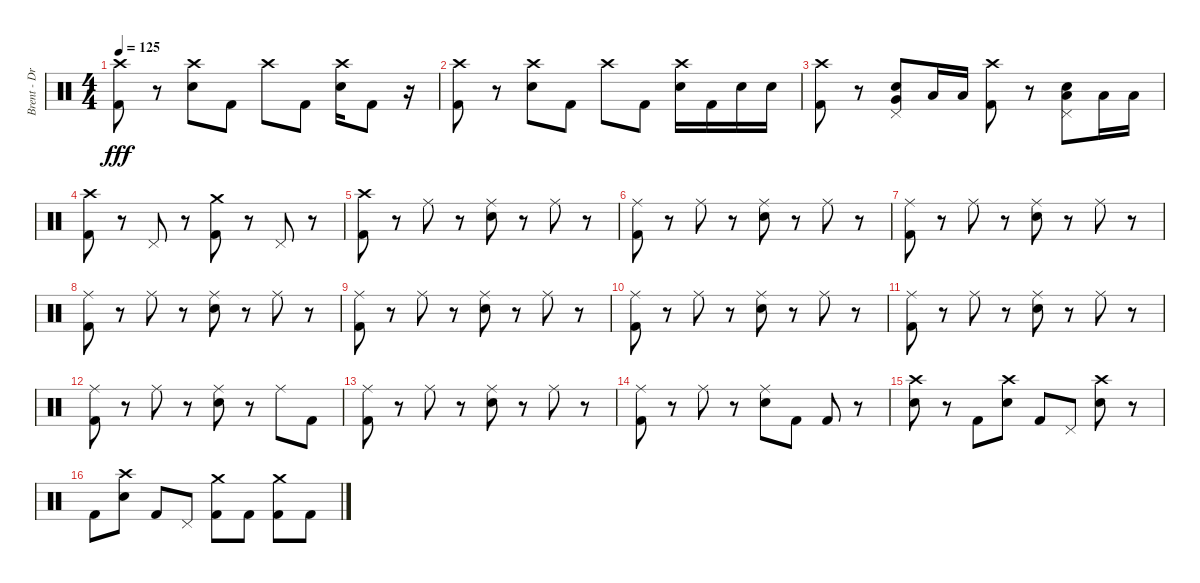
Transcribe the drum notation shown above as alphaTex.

\track ("Brent - Drums" "Brent - Dr") {instrument percussion}
\staff {score}
\articulation defaults
\ts (4 4)
\tempo 125
\clef neutral
\ks c
("Crash high (hit)" "Kick (hit) 2").8{dy fff} r.8 ("Crash high (hit)" "Snare (hit) 2").8 "Kick (hit) 2".8 "Crash high (hit)".8 "Kick (hit) 2".8 ("Crash high (hit)" "Snare (hit) 2").16 "Kick (hit) 2".8 r.16 |
("Crash high (hit)" "Kick (hit) 2").8 r.8 ("Crash high (hit)" "Snare (hit) 2").8 "Kick (hit) 2".8 "Crash high (hit)".8 "Kick (hit) 2".8 ("Crash high (hit)" "Snare (hit) 2").16 "Kick (hit) 2".16 "Snare (hit) 2".16 "Snare (hit) 2".16 |
("Crash high (hit)" "Kick (hit) 2").8 r.8 ("Pedal Hi-Hat (hit)" "Snare (hit) 2" "Very Low Tom (hit)").8 "Low Tom (hit)".16 "Low Tom (hit)".16 ("Crash high (hit)" "Kick (hit) 2").8 r.8 ("Pedal Hi-Hat (hit)" "Snare (hit) 2" "Low Tom (hit)").8 "Low Floor Tom (hit)".16 "Low Floor Tom (hit)".16 |
("Crash high (hit)" "Kick (hit) 2").8 r.8 "Pedal Hi-Hat (hit)".8 r.8 ("Crash medium (hit)" "Kick (hit) 2").8 r.8 "Pedal Hi-Hat (hit)".8 r.8 |
("Crash high (hit)" "Kick (hit) 2").8 r.8 "Ride (middle)".8 r.8 ("Ride (middle)" "Snare (hit) 2").8 r.8 "Ride (middle)".8 r.8 |
("Ride (middle)" "Kick (hit) 2").8 r.8 "Ride (middle)".8 r.8 ("Ride (middle)" "Snare (hit) 2").8 r.8 "Ride (middle)".8 r.8 |
("Ride (middle)" "Kick (hit) 2").8 r.8 "Ride (middle)".8 r.8 ("Ride (middle)" "Snare (hit) 2").8 r.8 "Ride (middle)".8 r.8 |
("Ride (middle)" "Kick (hit) 2").8 r.8 "Ride (middle)".8 r.8 ("Ride (middle)" "Snare (hit) 2").8 r.8 "Ride (middle)".8 r.8 |
("Ride (middle)" "Kick (hit) 2").8 r.8 "Ride (middle)".8 r.8 ("Ride (middle)" "Snare (hit) 2").8 r.8 "Ride (middle)".8 r.8 |
("Ride (middle)" "Kick (hit) 2").8 r.8 "Ride (middle)".8 r.8 ("Ride (middle)" "Snare (hit) 2").8 r.8 "Ride (middle)".8 r.8 |
("Ride (middle)" "Kick (hit) 2").8 r.8 "Ride (middle)".8 r.8 ("Ride (middle)" "Snare (hit) 2").8 r.8 "Ride (middle)".8 r.8 |
("Ride (middle)" "Kick (hit) 2").8 r.8 "Ride (middle)".8 r.8 ("Ride (middle)" "Snare (hit) 2").8 r.8 "Ride (middle)".8 "Kick (hit) 2".8 |
("Ride (middle)" "Kick (hit) 2").8 r.8 "Ride (middle)".8 r.8 ("Ride (middle)" "Snare (hit) 2").8 r.8 "Ride (middle)".8 r.8 |
("Ride (middle)" "Kick (hit) 2").8 r.8 "Ride (middle)".8 r.8 ("Ride (middle)" "Snare (hit) 2").8 "Kick (hit) 2".8 "Kick (hit) 2".8 r.8 |
("Crash high (hit)" "Snare (hit) 2").8 r.8 "Kick (hit) 2".8 ("Crash high (hit)" "Snare (hit) 2").8 "Kick (hit) 2".8 "Pedal Hi-Hat (hit)".8 ("Crash high (hit)" "Snare (hit) 2").8 r.8 |
"Kick (hit) 2".8 ("Crash high (hit)" "Snare (hit) 2").8 "Kick (hit) 2".8 "Pedal Hi-Hat (hit)".8 ("Crash medium (hit)" "Kick (hit) 2").8 "Kick (hit) 2".8 ("Crash medium (hit)" "Kick (hit) 2").8 "Kick (hit) 2".8
